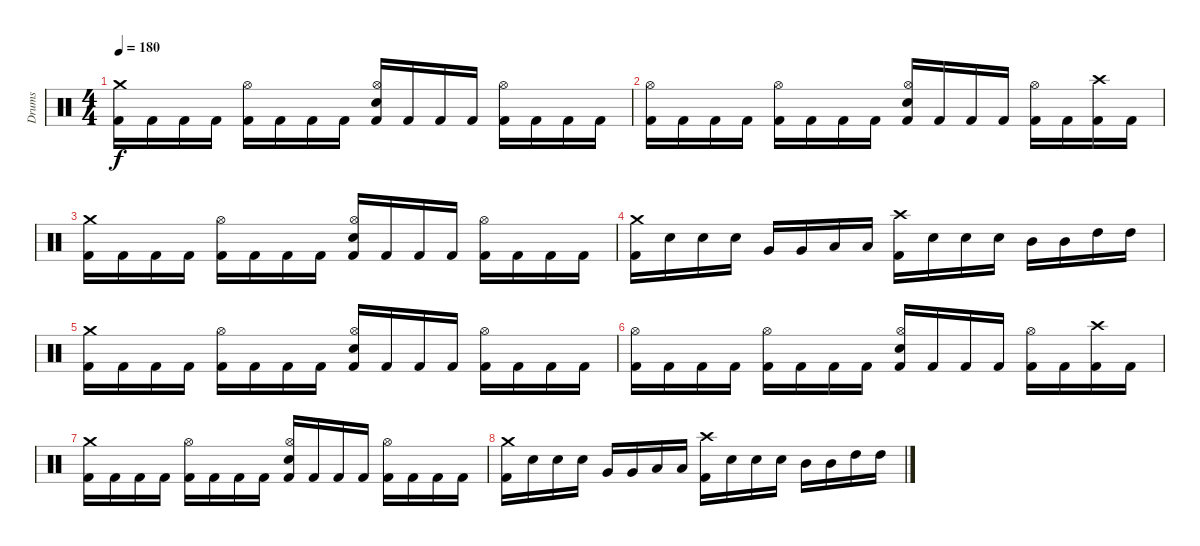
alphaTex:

\track ("Drums" "Drums") {instrument percussion}
\staff {score}
\articulation defaults
\ts (4 4)
\tempo 180
\clef neutral
\ks c
("Kick (hit) 2" "Crash medium (hit)").16{dy f volume 8} "Kick (hit) 2".16 "Kick (hit) 2".16 "Kick (hit) 2".16 ("Kick (hit) 2" "Hi-Hat (open)").16 "Kick (hit) 2".16 "Kick (hit) 2".16 "Kick (hit) 2".16 ("Kick (hit) 2" "Electric Snare (hit)" "Hi-Hat (open)").16 "Kick (hit) 2".16 "Kick (hit) 2".16 "Kick (hit) 2".16 ("Kick (hit) 2" "Hi-Hat (open)").16 "Kick (hit) 2".16 "Kick (hit) 2".16 "Kick (hit) 2".16 |
("Kick (hit) 2" "Hi-Hat (open)").16 "Kick (hit) 2".16 "Kick (hit) 2".16 "Kick (hit) 2".16 ("Kick (hit) 2" "Hi-Hat (open)").16 "Kick (hit) 2".16 "Kick (hit) 2".16 "Kick (hit) 2".16 ("Kick (hit) 2" "Electric Snare (hit)" "Hi-Hat (open)").16 "Kick (hit) 2".16 "Kick (hit) 2".16 "Kick (hit) 2".16 ("Kick (hit) 2" "Hi-Hat (open)").16 "Kick (hit) 2".16 ("Kick (hit) 2" "Crash high (hit)").16 "Kick (hit) 2".16 |
("Kick (hit) 2" "Crash medium (hit)").16 "Kick (hit) 2".16 "Kick (hit) 2".16 "Kick (hit) 2".16 ("Kick (hit) 2" "Hi-Hat (open)").16 "Kick (hit) 2".16 "Kick (hit) 2".16 "Kick (hit) 2".16 ("Kick (hit) 2" "Electric Snare (hit)" "Hi-Hat (open)").16 "Kick (hit) 2".16 "Kick (hit) 2".16 "Kick (hit) 2".16 ("Kick (hit) 2" "Hi-Hat (open)").16 "Kick (hit) 2".16 "Kick (hit) 2".16 "Kick (hit) 2".16 |
("Kick (hit) 2" "Crash medium (hit)").16 "Electric Snare (hit)".16 "Electric Snare (hit)".16 "Electric Snare (hit)".16 "Very Low Tom (hit)".16 "Very Low Tom (hit)".16 "Low Tom (hit)".16 "Low Tom (hit)".16 ("Kick (hit) 2" "Crash high (hit)").16 "Electric Snare (hit)".16 "Electric Snare (hit)".16 "Electric Snare (hit)".16 "Mid Tom (hit)".16 "Mid Tom (hit)".16 "High Tom (hit)".16 "High Tom (hit)".16 |
("Kick (hit) 2" "Crash medium (hit)").16{volume 0} "Kick (hit) 2".16 "Kick (hit) 2".16 "Kick (hit) 2".16 ("Kick (hit) 2" "Hi-Hat (open)").16 "Kick (hit) 2".16 "Kick (hit) 2".16 "Kick (hit) 2".16 ("Kick (hit) 2" "Electric Snare (hit)" "Hi-Hat (open)").16 "Kick (hit) 2".16 "Kick (hit) 2".16 "Kick (hit) 2".16 ("Kick (hit) 2" "Hi-Hat (open)").16 "Kick (hit) 2".16 "Kick (hit) 2".16 "Kick (hit) 2".16 |
("Kick (hit) 2" "Hi-Hat (open)").16 "Kick (hit) 2".16 "Kick (hit) 2".16 "Kick (hit) 2".16 ("Kick (hit) 2" "Hi-Hat (open)").16 "Kick (hit) 2".16 "Kick (hit) 2".16 "Kick (hit) 2".16 ("Kick (hit) 2" "Electric Snare (hit)" "Hi-Hat (open)").16 "Kick (hit) 2".16 "Kick (hit) 2".16 "Kick (hit) 2".16 ("Kick (hit) 2" "Hi-Hat (open)").16 "Kick (hit) 2".16 ("Kick (hit) 2" "Crash high (hit)").16 "Kick (hit) 2".16 |
("Kick (hit) 2" "Crash medium (hit)").16 "Kick (hit) 2".16 "Kick (hit) 2".16 "Kick (hit) 2".16 ("Kick (hit) 2" "Hi-Hat (open)").16 "Kick (hit) 2".16 "Kick (hit) 2".16 "Kick (hit) 2".16 ("Kick (hit) 2" "Electric Snare (hit)" "Hi-Hat (open)").16 "Kick (hit) 2".16 "Kick (hit) 2".16 "Kick (hit) 2".16 ("Kick (hit) 2" "Hi-Hat (open)").16 "Kick (hit) 2".16 "Kick (hit) 2".16 "Kick (hit) 2".16 |
("Kick (hit) 2" "Crash medium (hit)").16 "Electric Snare (hit)".16 "Electric Snare (hit)".16 "Electric Snare (hit)".16 "Very Low Tom (hit)".16 "Very Low Tom (hit)".16 "Low Tom (hit)".16 "Low Tom (hit)".16 ("Kick (hit) 2" "Crash high (hit)").16 "Electric Snare (hit)".16 "Electric Snare (hit)".16 "Electric Snare (hit)".16 "Mid Tom (hit)".16 "Mid Tom (hit)".16 "High Tom (hit)".16 "High Tom (hit)".16
